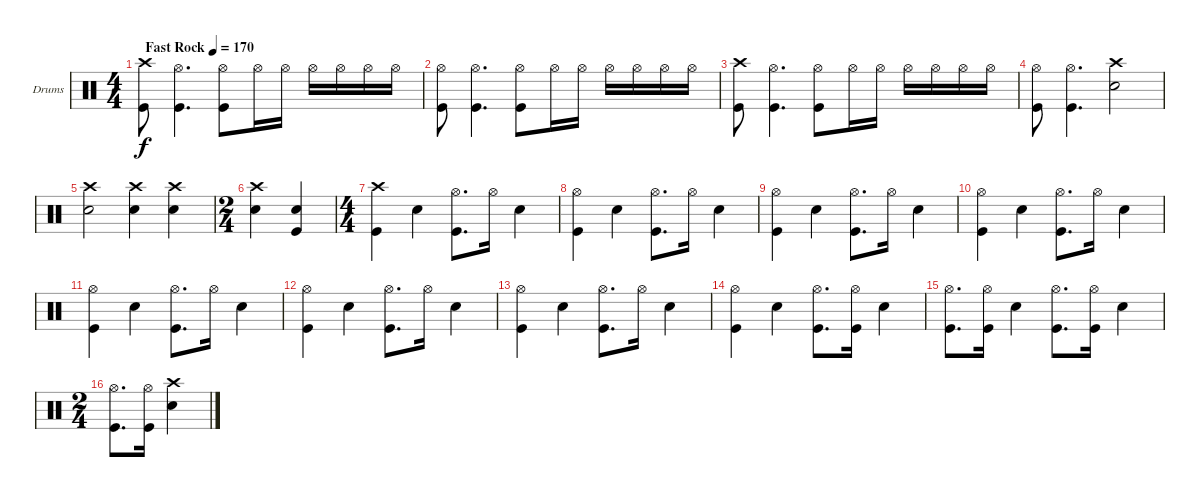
\bracketExtendMode groupsimilarinstruments
\firstSystemTrackNameOrientation horizontal
\otherSystemsTrackNameOrientation horizontal
\track ("Batterie - Anders Johansson" "Drums") {instrument percussion}
\staff {score}
\articulation defaults
\ts (4 4)
\beaming (8 2 2 2 2)
\tempo (170 "Fast Rock")
\clef neutral
\ks c
("Crash high (hit)" "Kick (hit)").8{dy f} ("Hi-Hat (open)" "Kick (hit)").4{d} ("Hi-Hat (open)" "Kick (hit)").8 "Hi-Hat (open)".16 "Hi-Hat (open)".16 "Hi-Hat (open)".16 "Hi-Hat (open)".16 "Hi-Hat (open)".16 "Hi-Hat (open)".16 |
("Hi-Hat (open)" "Kick (hit)").8 ("Hi-Hat (open)" "Kick (hit)").4{d} ("Hi-Hat (open)" "Kick (hit)").8 "Hi-Hat (open)".16 "Hi-Hat (open)".16 "Hi-Hat (open)".16 "Hi-Hat (open)".16 "Hi-Hat (open)".16 "Hi-Hat (open)".16 |
("Crash high (hit)" "Kick (hit)").8 ("Hi-Hat (open)" "Kick (hit)").4{d} ("Hi-Hat (open)" "Kick (hit)").8 "Hi-Hat (open)".16 "Hi-Hat (open)".16 "Hi-Hat (open)".16 "Hi-Hat (open)".16 "Hi-Hat (open)".16 "Hi-Hat (open)".16 |
("Hi-Hat (open)" "Kick (hit)").8 ("Hi-Hat (open)" "Kick (hit)").4{d} ("Crash high (hit)" "Snare (hit) 2").2 |
("Crash high (hit)" "Snare (hit) 2").2 ("Crash high (hit)" "Snare (hit) 2").4 ("Crash high (hit)" "Snare (hit) 2").4 |
\ts (2 4)
\beaming (8 2 2)
("Crash high (hit)" "Snare (hit) 2").4 ("Snare (hit) 2" "Kick (hit)").4 |
\ts (4 4)
\beaming (8 2 2 2 2)
("Crash high (hit)" "Kick (hit)").4 "Snare (hit) 2".4 ("Hi-Hat (open)" "Kick (hit)").8{d} "Hi-Hat (open)".16 "Snare (hit) 2".4 |
("Hi-Hat (open)" "Kick (hit)").4 "Snare (hit) 2".4 ("Hi-Hat (open)" "Kick (hit)").8{d} "Hi-Hat (open)".16 "Snare (hit) 2".4 |
("Hi-Hat (open)" "Kick (hit)").4 "Snare (hit) 2".4 ("Hi-Hat (open)" "Kick (hit)").8{d} "Hi-Hat (open)".16 "Snare (hit) 2".4 |
("Hi-Hat (open)" "Kick (hit)").4 "Snare (hit) 2".4 ("Hi-Hat (open)" "Kick (hit)").8{d} "Hi-Hat (open)".16 "Snare (hit) 2".4 |
("Hi-Hat (open)" "Kick (hit)").4 "Snare (hit) 2".4 ("Hi-Hat (open)" "Kick (hit)").8{d} "Hi-Hat (open)".16 "Snare (hit) 2".4 |
("Hi-Hat (open)" "Kick (hit)").4 "Snare (hit) 2".4 ("Hi-Hat (open)" "Kick (hit)").8{d} "Hi-Hat (open)".16 "Snare (hit) 2".4 |
("Hi-Hat (open)" "Kick (hit)").4 "Snare (hit) 2".4 ("Hi-Hat (open)" "Kick (hit)").8{d} "Hi-Hat (open)".16 "Snare (hit) 2".4 |
("Hi-Hat (open)" "Kick (hit)").4 "Snare (hit) 2".4 ("Hi-Hat (open)" "Kick (hit)").8{d} ("Hi-Hat (open)" "Kick (hit)").16 "Snare (hit) 2".4 |
("Hi-Hat (open)" "Kick (hit)").8{d} ("Hi-Hat (open)" "Kick (hit)").16 "Snare (hit) 2".4 ("Hi-Hat (open)" "Kick (hit)").8{d} ("Hi-Hat (open)" "Kick (hit)").16 "Snare (hit) 2".4 |
\ts (2 4)
\beaming (8 2 2)
("Hi-Hat (open)" "Kick (hit)").8{d} ("Hi-Hat (open)" "Kick (hit)").16 ("Crash high (hit)" "Snare (hit) 2").4
